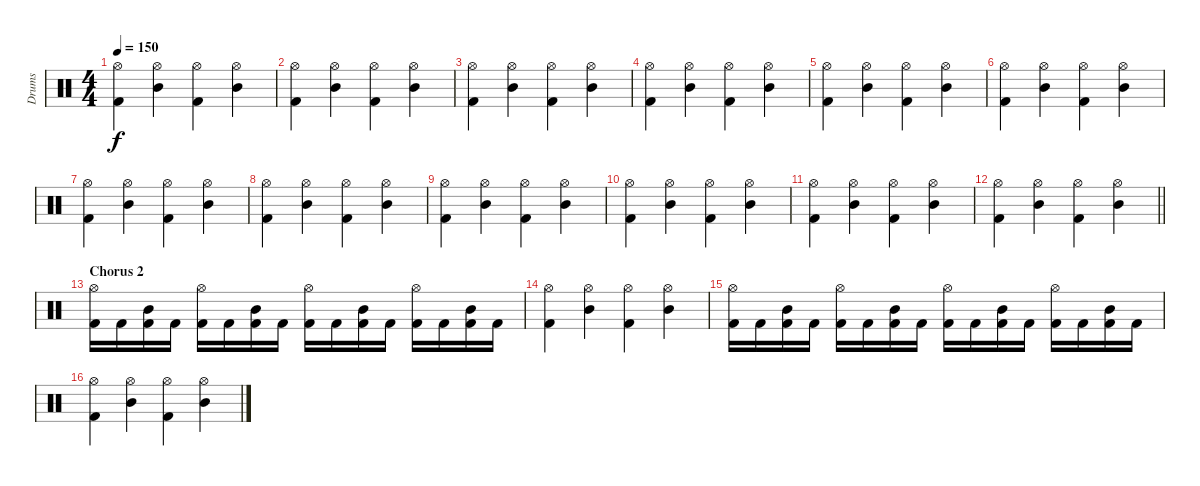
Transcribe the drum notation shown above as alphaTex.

\track ("Drums" "Drums") {instrument percussion}
\staff {score}
\articulation defaults
\ts (4 4)
\tempo 150
\clef neutral
\ks c
("Kick (hit) 2" "Hi-Hat (open)").4{dy f} ("Mid Tom (hit)" "Hi-Hat (open)").4 ("Kick (hit) 2" "Hi-Hat (open)").4 ("Mid Tom (hit)" "Hi-Hat (open)").4 |
("Kick (hit) 2" "Hi-Hat (open)").4 ("Mid Tom (hit)" "Hi-Hat (open)").4 ("Kick (hit) 2" "Hi-Hat (open)").4 ("Mid Tom (hit)" "Hi-Hat (open)").4 |
("Kick (hit) 2" "Hi-Hat (open)").4 ("Mid Tom (hit)" "Hi-Hat (open)").4 ("Kick (hit) 2" "Hi-Hat (open)").4 ("Mid Tom (hit)" "Hi-Hat (open)").4 |
("Kick (hit) 2" "Hi-Hat (open)").4 ("Mid Tom (hit)" "Hi-Hat (open)").4 ("Kick (hit) 2" "Hi-Hat (open)").4 ("Mid Tom (hit)" "Hi-Hat (open)").4 |
("Kick (hit) 2" "Hi-Hat (open)").4 ("Mid Tom (hit)" "Hi-Hat (open)").4 ("Kick (hit) 2" "Hi-Hat (open)").4 ("Mid Tom (hit)" "Hi-Hat (open)").4 |
("Kick (hit) 2" "Hi-Hat (open)").4 ("Mid Tom (hit)" "Hi-Hat (open)").4 ("Kick (hit) 2" "Hi-Hat (open)").4 ("Mid Tom (hit)" "Hi-Hat (open)").4 |
("Kick (hit) 2" "Hi-Hat (open)").4 ("Mid Tom (hit)" "Hi-Hat (open)").4 ("Kick (hit) 2" "Hi-Hat (open)").4 ("Mid Tom (hit)" "Hi-Hat (open)").4 |
("Kick (hit) 2" "Hi-Hat (open)").4 ("Mid Tom (hit)" "Hi-Hat (open)").4 ("Kick (hit) 2" "Hi-Hat (open)").4 ("Mid Tom (hit)" "Hi-Hat (open)").4 |
("Kick (hit) 2" "Hi-Hat (open)").4 ("Mid Tom (hit)" "Hi-Hat (open)").4 ("Kick (hit) 2" "Hi-Hat (open)").4 ("Mid Tom (hit)" "Hi-Hat (open)").4 |
("Kick (hit) 2" "Hi-Hat (open)").4 ("Mid Tom (hit)" "Hi-Hat (open)").4 ("Kick (hit) 2" "Hi-Hat (open)").4 ("Mid Tom (hit)" "Hi-Hat (open)").4 |
("Kick (hit) 2" "Hi-Hat (open)").4 ("Mid Tom (hit)" "Hi-Hat (open)").4 ("Kick (hit) 2" "Hi-Hat (open)").4 ("Mid Tom (hit)" "Hi-Hat (open)").4 |
\barLineRight lightlight
("Kick (hit) 2" "Hi-Hat (open)").4 ("Mid Tom (hit)" "Hi-Hat (open)").4 ("Kick (hit) 2" "Hi-Hat (open)").4 ("Mid Tom (hit)" "Hi-Hat (open)").4 |
\section ("" "Chorus 2")
("Kick (hit) 2" "Hi-Hat (open)").16 "Kick (hit) 2".16 ("Kick (hit) 2" "Mid Tom (hit)").16 "Kick (hit) 2".16 ("Kick (hit) 2" "Hi-Hat (open)").16 "Kick (hit) 2".16 ("Kick (hit) 2" "Mid Tom (hit)").16 "Kick (hit) 2".16 ("Kick (hit) 2" "Hi-Hat (open)").16 "Kick (hit) 2".16 ("Kick (hit) 2" "Mid Tom (hit)").16 "Kick (hit) 2".16 ("Kick (hit) 2" "Hi-Hat (open)").16 "Kick (hit) 2".16 ("Kick (hit) 2" "Mid Tom (hit)").16 "Kick (hit) 2".16 |
("Kick (hit) 2" "Hi-Hat (open)").4 ("Mid Tom (hit)" "Hi-Hat (open)").4 ("Kick (hit) 2" "Hi-Hat (open)").4 ("Mid Tom (hit)" "Hi-Hat (open)").4 |
("Kick (hit) 2" "Hi-Hat (open)").16 "Kick (hit) 2".16 ("Kick (hit) 2" "Mid Tom (hit)").16 "Kick (hit) 2".16 ("Kick (hit) 2" "Hi-Hat (open)").16 "Kick (hit) 2".16 ("Kick (hit) 2" "Mid Tom (hit)").16 "Kick (hit) 2".16 ("Kick (hit) 2" "Hi-Hat (open)").16 "Kick (hit) 2".16 ("Kick (hit) 2" "Mid Tom (hit)").16 "Kick (hit) 2".16 ("Kick (hit) 2" "Hi-Hat (open)").16 "Kick (hit) 2".16 ("Kick (hit) 2" "Mid Tom (hit)").16 "Kick (hit) 2".16 |
("Kick (hit) 2" "Hi-Hat (open)").4 ("Mid Tom (hit)" "Hi-Hat (open)").4 ("Kick (hit) 2" "Hi-Hat (open)").4 ("Mid Tom (hit)" "Hi-Hat (open)").4
